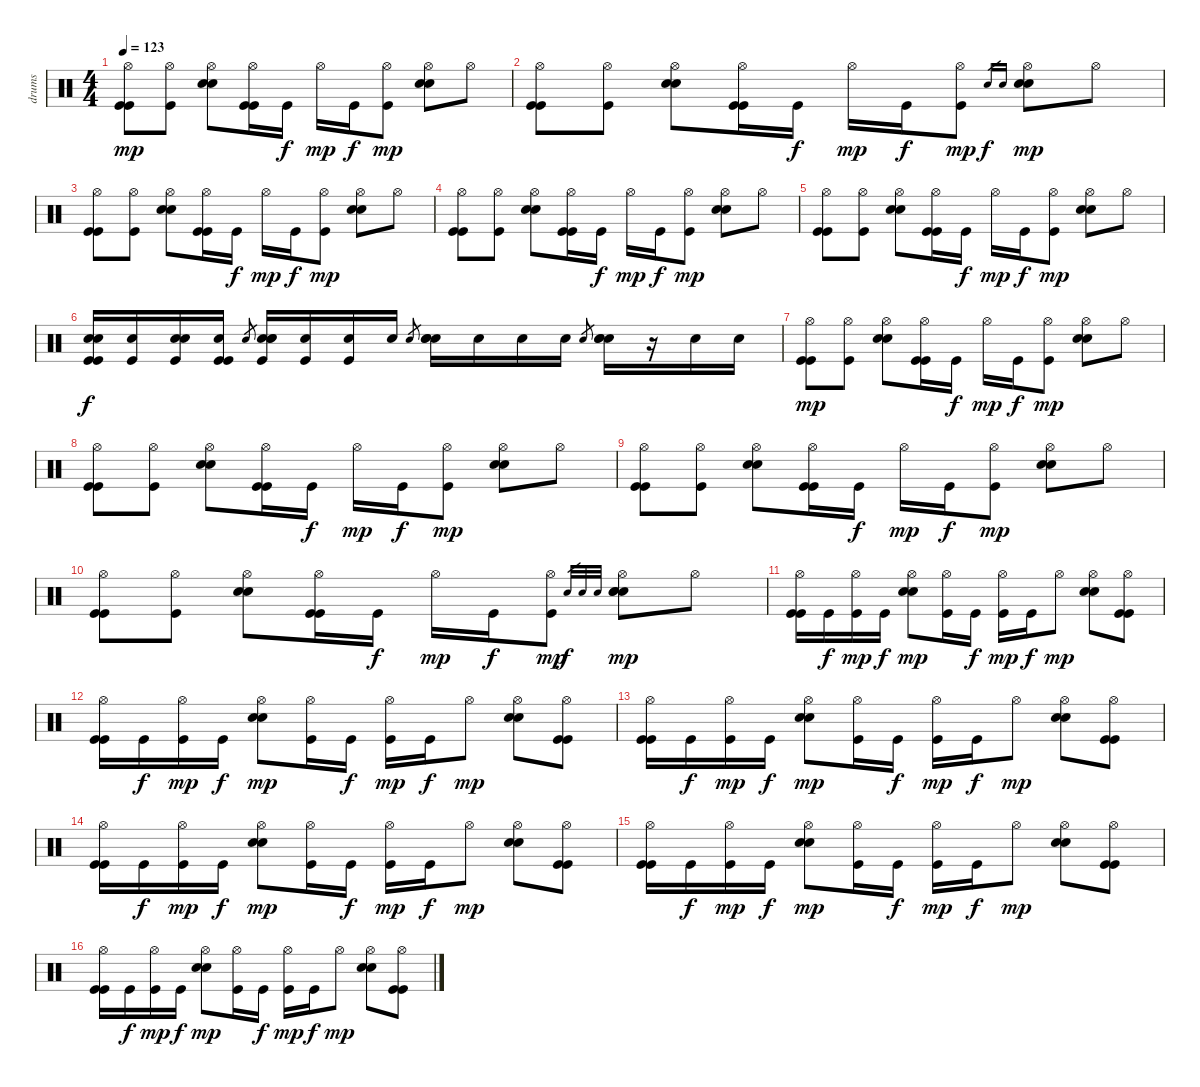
\track ("drums" "drums") {instrument percussion}
\staff {score}
\articulation defaults
\ts (4 4)
\tempo 123
\clef neutral
\ks c
("Hi-Hat (open)" "Kick (hit)" "Kick (hit)").8{dy mp} ("Hi-Hat (open)" "Kick (hit)").8 ("Hi-Hat (open)" "Snare (hit) 2" "Snare (hit) 2").8 ("Hi-Hat (open)" "Kick (hit)" "Kick (hit)").16 "Kick (hit)".16{dy f} "Hi-Hat (open)".16{dy mp} "Kick (hit)".16{dy f} ("Hi-Hat (open)" "Kick (hit)").8{dy mp} ("Hi-Hat (open)" "Snare (hit) 2" "Snare (hit) 2").8 "Hi-Hat (open)".8 |
("Hi-Hat (open)" "Kick (hit)" "Kick (hit)").8 ("Hi-Hat (open)" "Kick (hit)").8 ("Hi-Hat (open)" "Snare (hit) 2" "Snare (hit) 2").8 ("Hi-Hat (open)" "Kick (hit)" "Kick (hit)").16 "Kick (hit)".16{dy f} "Hi-Hat (open)".16{dy mp} "Kick (hit)".16{dy f} ("Hi-Hat (open)" "Kick (hit)").8{dy mp} "Snare (hit) 2".16{gr dy f} "Snare (hit) 2".16{gr} ("Hi-Hat (open)" "Snare (hit) 2" "Snare (hit) 2").8{dy mp} "Hi-Hat (open)".8 |
("Hi-Hat (open)" "Kick (hit)" "Kick (hit)").8 ("Hi-Hat (open)" "Kick (hit)").8 ("Hi-Hat (open)" "Snare (hit) 2" "Snare (hit) 2").8 ("Hi-Hat (open)" "Kick (hit)" "Kick (hit)").16 "Kick (hit)".16{dy f} "Hi-Hat (open)".16{dy mp} "Kick (hit)".16{dy f} ("Hi-Hat (open)" "Kick (hit)").8{dy mp} ("Hi-Hat (open)" "Snare (hit) 2" "Snare (hit) 2").8 "Hi-Hat (open)".8 |
("Hi-Hat (open)" "Kick (hit)" "Kick (hit)").8 ("Hi-Hat (open)" "Kick (hit)").8 ("Hi-Hat (open)" "Snare (hit) 2" "Snare (hit) 2").8 ("Hi-Hat (open)" "Kick (hit)" "Kick (hit)").16 "Kick (hit)".16{dy f} "Hi-Hat (open)".16{dy mp} "Kick (hit)".16{dy f} ("Hi-Hat (open)" "Kick (hit)").8{dy mp} ("Hi-Hat (open)" "Snare (hit) 2" "Snare (hit) 2").8 "Hi-Hat (open)".8 |
("Hi-Hat (open)" "Kick (hit)" "Kick (hit)").8 ("Hi-Hat (open)" "Kick (hit)").8 ("Hi-Hat (open)" "Snare (hit) 2" "Snare (hit) 2").8 ("Hi-Hat (open)" "Kick (hit)" "Kick (hit)").16 "Kick (hit)".16{dy f} "Hi-Hat (open)".16{dy mp} "Kick (hit)".16{dy f} ("Hi-Hat (open)" "Kick (hit)").8{dy mp} ("Hi-Hat (open)" "Snare (hit) 2" "Snare (hit) 2").8 "Hi-Hat (open)".8 |
("Snare (hit) 2" "Snare (hit) 2" "Kick (hit)" "Kick (hit)").16{dy f} ("Snare (hit) 2" "Kick (hit)").16 ("Snare (hit) 2" "Snare (hit) 2" "Kick (hit)").16 ("Snare (hit) 2" "Kick (hit)" "Kick (hit)").16 "Snare (hit) 2".8{gr} ("Snare (hit) 2" "Snare (hit) 2" "Snare (hit) 2" "Kick (hit)").16 ("Snare (hit) 2" "Kick (hit)").16 ("Snare (hit) 2" "Kick (hit)").16 "Snare (hit) 2".16 "Snare (hit) 2".8{gr} ("Snare (hit) 2" "Snare (hit) 2" "Snare (hit) 2").16 "Snare (hit) 2".16 "Snare (hit) 2".16 "Snare (hit) 2".16 "Snare (hit) 2".8{gr} ("Snare (hit) 2" "Snare (hit) 2" "Snare (hit) 2").16 r.16 "Snare (hit) 2".16 "Snare (hit) 2".16 |
("Hi-Hat (open)" "Kick (hit)" "Kick (hit)").8{dy mp} ("Hi-Hat (open)" "Kick (hit)").8 ("Hi-Hat (open)" "Snare (hit) 2" "Snare (hit) 2").8 ("Hi-Hat (open)" "Kick (hit)" "Kick (hit)").16 "Kick (hit)".16{dy f} "Hi-Hat (open)".16{dy mp} "Kick (hit)".16{dy f} ("Hi-Hat (open)" "Kick (hit)").8{dy mp} ("Hi-Hat (open)" "Snare (hit) 2" "Snare (hit) 2").8 "Hi-Hat (open)".8 |
("Hi-Hat (open)" "Kick (hit)" "Kick (hit)").8 ("Hi-Hat (open)" "Kick (hit)").8 ("Hi-Hat (open)" "Snare (hit) 2" "Snare (hit) 2").8 ("Hi-Hat (open)" "Kick (hit)" "Kick (hit)").16 "Kick (hit)".16{dy f} "Hi-Hat (open)".16{dy mp} "Kick (hit)".16{dy f} ("Hi-Hat (open)" "Kick (hit)").8{dy mp} ("Hi-Hat (open)" "Snare (hit) 2" "Snare (hit) 2").8 "Hi-Hat (open)".8 |
("Hi-Hat (open)" "Kick (hit)" "Kick (hit)").8 ("Hi-Hat (open)" "Kick (hit)").8 ("Hi-Hat (open)" "Snare (hit) 2" "Snare (hit) 2").8 ("Hi-Hat (open)" "Kick (hit)" "Kick (hit)").16 "Kick (hit)".16{dy f} "Hi-Hat (open)".16{dy mp} "Kick (hit)".16{dy f} ("Hi-Hat (open)" "Kick (hit)").8{dy mp} ("Hi-Hat (open)" "Snare (hit) 2" "Snare (hit) 2").8 "Hi-Hat (open)".8 |
("Hi-Hat (open)" "Kick (hit)" "Kick (hit)").8 ("Hi-Hat (open)" "Kick (hit)").8 ("Hi-Hat (open)" "Snare (hit) 2" "Snare (hit) 2").8 ("Hi-Hat (open)" "Kick (hit)" "Kick (hit)").16 "Kick (hit)".16{dy f} "Hi-Hat (open)".16{dy mp} "Kick (hit)".16{dy f} ("Hi-Hat (open)" "Kick (hit)").8{dy mp} "Electric Snare (hit)".32{gr dy f} "Electric Snare (hit)".32{gr} "Electric Snare (hit)".32{gr} ("Hi-Hat (open)" "Electric Snare (hit)" "Electric Snare (hit)" "Electric Snare (hit)").8{dy mp} "Hi-Hat (open)".8 |
("Hi-Hat (open)" "Kick (hit)" "Kick (hit)").16 "Kick (hit)".16{dy f} ("Hi-Hat (open)" "Kick (hit)").16{dy mp} "Kick (hit)".16{dy f} ("Hi-Hat (open)" "Snare (hit) 2" "Snare (hit) 2").8{dy mp} ("Hi-Hat (open)" "Kick (hit)").16 "Kick (hit)".16{dy f} ("Hi-Hat (open)" "Kick (hit)").16{dy mp} "Kick (hit)".16{dy f} "Hi-Hat (open)".8{dy mp} ("Hi-Hat (open)" "Snare (hit) 2" "Snare (hit) 2").8 ("Hi-Hat (open)" "Kick (hit)" "Kick (hit)").8 |
("Hi-Hat (open)" "Kick (hit)" "Kick (hit)").16 "Kick (hit)".16{dy f} ("Hi-Hat (open)" "Kick (hit)").16{dy mp} "Kick (hit)".16{dy f} ("Hi-Hat (open)" "Snare (hit) 2" "Snare (hit) 2").8{dy mp} ("Hi-Hat (open)" "Kick (hit)").16 "Kick (hit)".16{dy f} ("Hi-Hat (open)" "Kick (hit)").16{dy mp} "Kick (hit)".16{dy f} "Hi-Hat (open)".8{dy mp} ("Hi-Hat (open)" "Snare (hit) 2" "Snare (hit) 2").8 ("Hi-Hat (open)" "Kick (hit)" "Kick (hit)").8 |
("Hi-Hat (open)" "Kick (hit)" "Kick (hit)").16 "Kick (hit)".16{dy f} ("Hi-Hat (open)" "Kick (hit)").16{dy mp} "Kick (hit)".16{dy f} ("Hi-Hat (open)" "Snare (hit) 2" "Snare (hit) 2").8{dy mp} ("Hi-Hat (open)" "Kick (hit)").16 "Kick (hit)".16{dy f} ("Hi-Hat (open)" "Kick (hit)").16{dy mp} "Kick (hit)".16{dy f} "Hi-Hat (open)".8{dy mp} ("Hi-Hat (open)" "Snare (hit) 2" "Snare (hit) 2").8 ("Hi-Hat (open)" "Kick (hit)" "Kick (hit)").8 |
("Hi-Hat (open)" "Kick (hit)" "Kick (hit)").16 "Kick (hit)".16{dy f} ("Hi-Hat (open)" "Kick (hit)").16{dy mp} "Kick (hit)".16{dy f} ("Hi-Hat (open)" "Snare (hit) 2" "Snare (hit) 2").8{dy mp} ("Hi-Hat (open)" "Kick (hit)").16 "Kick (hit)".16{dy f} ("Hi-Hat (open)" "Kick (hit)").16{dy mp} "Kick (hit)".16{dy f} "Hi-Hat (open)".8{dy mp} ("Hi-Hat (open)" "Snare (hit) 2" "Snare (hit) 2").8 ("Hi-Hat (open)" "Kick (hit)" "Kick (hit)").8 |
("Hi-Hat (open)" "Kick (hit)" "Kick (hit)").16 "Kick (hit)".16{dy f} ("Hi-Hat (open)" "Kick (hit)").16{dy mp} "Kick (hit)".16{dy f} ("Hi-Hat (open)" "Snare (hit) 2" "Snare (hit) 2").8{dy mp} ("Hi-Hat (open)" "Kick (hit)").16 "Kick (hit)".16{dy f} ("Hi-Hat (open)" "Kick (hit)").16{dy mp} "Kick (hit)".16{dy f} "Hi-Hat (open)".8{dy mp} ("Hi-Hat (open)" "Snare (hit) 2" "Snare (hit) 2").8 ("Hi-Hat (open)" "Kick (hit)" "Kick (hit)").8 |
("Hi-Hat (open)" "Kick (hit)" "Kick (hit)").16 "Kick (hit)".16{dy f} ("Hi-Hat (open)" "Kick (hit)").16{dy mp} "Kick (hit)".16{dy f} ("Hi-Hat (open)" "Snare (hit) 2" "Snare (hit) 2").8{dy mp} ("Hi-Hat (open)" "Kick (hit)").16 "Kick (hit)".16{dy f} ("Hi-Hat (open)" "Kick (hit)").16{dy mp} "Kick (hit)".16{dy f} "Hi-Hat (open)".8{dy mp} ("Hi-Hat (open)" "Snare (hit) 2" "Snare (hit) 2").8 ("Hi-Hat (open)" "Kick (hit)" "Kick (hit)").8
